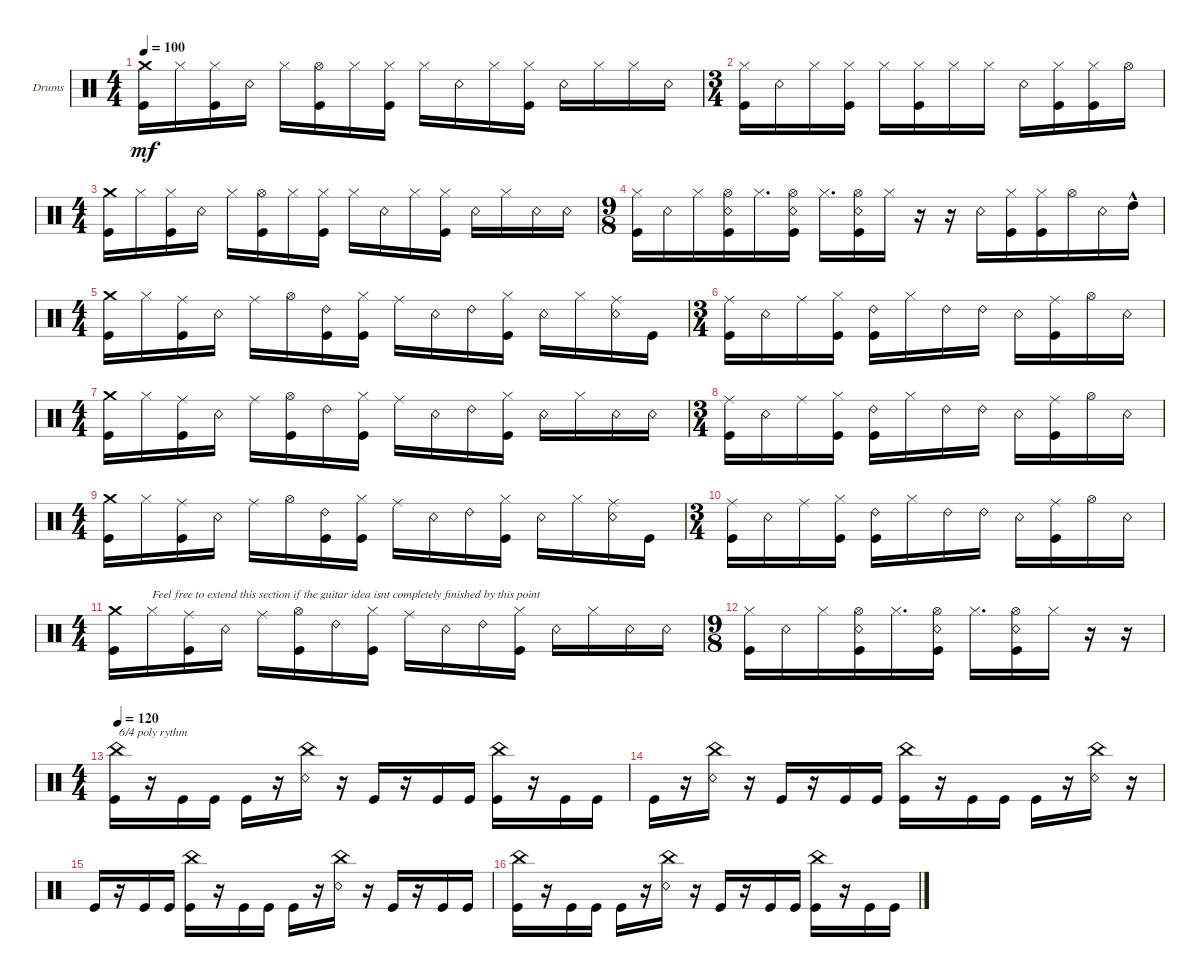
\defaultSystemsLayout 4
\bracketExtendMode groupsimilarinstruments
\firstSystemTrackNameOrientation horizontal
\otherSystemsTrackNameOrientation horizontal
\track ("Drumkit" "Drums") {instrument percussion}
\staff {score}
\articulation defaults
\ts (4 4)
\tempo 100
\clef neutral
\ks c
("Kick (hit)" "Crash medium (hit)").16{dy mf} "Hi-Hat (closed)".16 ("Kick (hit)" "Hi-Hat (closed)").16 "Snare (rim shot)".16 "Hi-Hat (closed)".16 ("Kick (hit)" "Hi-Hat (open)").16 "Hi-Hat (closed)".16 ("Hi-Hat (closed)" "Kick (hit)").16 "Hi-Hat (closed)".16 "Snare (rim shot)".16 "Hi-Hat (closed)".16 ("Hi-Hat (closed)" "Kick (hit)").16 "Snare (rim shot)".16 "Hi-Hat (closed)".16 "Hi-Hat (closed)".16 "Snare (rim shot)".16 |
\ts (3 4)
("Hi-Hat (closed)" "Kick (hit)").16 "Snare (rim shot)".16 "Hi-Hat (closed)".16 ("Hi-Hat (closed)" "Kick (hit)").16 "Hi-Hat (closed)".16 ("Hi-Hat (closed)" "Kick (hit)").16 "Hi-Hat (closed)".16 "Hi-Hat (closed)".16 "Snare (rim shot)".16 ("Hi-Hat (closed)" "Kick (hit)").16 ("Hi-Hat (closed)" "Kick (hit)").16 "Hi-Hat (open)".16 |
\ts (4 4)
("Kick (hit)" "Crash medium (hit)").16 "Hi-Hat (closed)".16 ("Kick (hit)" "Hi-Hat (closed)").16 "Snare (rim shot)".16 "Hi-Hat (closed)".16 ("Kick (hit)" "Hi-Hat (open)").16 "Hi-Hat (closed)".16 ("Hi-Hat (closed)" "Kick (hit)").16 "Hi-Hat (closed)".16 "Snare (rim shot)".16 "Hi-Hat (closed)".16 ("Hi-Hat (closed)" "Kick (hit)").16 "Snare (rim shot)".16 "Hi-Hat (closed)".16 "Snare (rim shot)".16 "Snare (rim shot)".16 |
\ts (9 8)
("Hi-Hat (closed)" "Kick (hit)").16 "Snare (rim shot)".16 "Hi-Hat (closed)".16 ("Hi-Hat (open)" "Kick (hit)" "Snare (rim shot)").16 "Hi-Hat (closed)".16{d} ("Kick (hit)" "Hi-Hat (open)" "Snare (rim shot)").16 "Hi-Hat (closed)".16{d} ("Snare (rim shot)" "Hi-Hat (open)" "Kick (hit)").16 "Hi-Hat (closed)".16 r.16 r.16 "Snare (rim shot)".16 ("Hi-Hat (closed)" "Kick (hit)").16 ("Hi-Hat (closed)" "Kick (hit)").16 "Hi-Hat (open)".16 "Snare (rim shot)".16 "High Tom (hit)"{hac}.16 |
\ts (4 4)
("Kick (hit)" "Crash medium (hit)").16 "Hi-Hat (closed)".16 ("Kick (hit)" "Ride (middle)").16 "Snare (rim shot)".16 "Ride (middle)".16 "Hi-Hat (open)".16 ("Ride (bell) 2" "Kick (hit)").16 ("Hi-Hat (closed)" "Kick (hit)").16 "Ride (middle)".16 "Snare (rim shot)".16 "Ride (bell) 2".16 ("Hi-Hat (closed)" "Kick (hit)").16 "Snare (rim shot)".16 "Hi-Hat (closed)".16 ("Ride (middle)" "Snare (rim shot)").16 "Kick (hit)".16 |
\ts (3 4)
("Kick (hit)" "Ride (middle)").16 "Snare (rim shot)".16 "Ride (middle)".16 ("Hi-Hat (closed)" "Kick (hit)").16 ("Ride (bell) 2" "Kick (hit)").16 "Hi-Hat (closed)".16 "Ride (bell) 2".16 "Ride (bell) 2".16 "Snare (rim shot)".16 ("Kick (hit)" "Ride (middle)").16 "Hi-Hat (open)".16 "Snare (rim shot)".16 |
\ts (4 4)
("Kick (hit)" "Crash medium (hit)").16 "Hi-Hat (closed)".16 ("Kick (hit)" "Ride (middle)").16 "Snare (rim shot)".16 "Ride (middle)".16 ("Kick (hit)" "Hi-Hat (open)").16 "Ride (bell) 2".16 ("Hi-Hat (closed)" "Kick (hit)").16 "Ride (middle)".16 "Snare (rim shot)".16 "Ride (bell) 2".16 ("Hi-Hat (closed)" "Kick (hit)").16 "Snare (rim shot)".16 "Hi-Hat (closed)".16 "Snare (rim shot)".16 "Snare (rim shot)".16 |
\ts (3 4)
("Kick (hit)" "Ride (middle)").16 "Snare (rim shot)".16 "Ride (middle)".16 ("Hi-Hat (closed)" "Kick (hit)").16 ("Ride (bell) 2" "Kick (hit)").16 "Hi-Hat (closed)".16 "Ride (bell) 2".16 "Ride (bell) 2".16 "Snare (rim shot)".16 ("Kick (hit)" "Ride (middle)").16 "Hi-Hat (open)".16 "Snare (rim shot)".16 |
\ts (4 4)
("Kick (hit)" "Crash medium (hit)").16 "Hi-Hat (closed)".16 ("Kick (hit)" "Ride (middle)").16 "Snare (rim shot)".16 "Ride (middle)".16 "Hi-Hat (open)".16 ("Ride (bell) 2" "Kick (hit)").16 ("Hi-Hat (closed)" "Kick (hit)").16 "Ride (middle)".16 "Snare (rim shot)".16 "Ride (bell) 2".16 ("Hi-Hat (closed)" "Kick (hit)").16 "Snare (rim shot)".16 "Hi-Hat (closed)".16 ("Ride (middle)" "Snare (rim shot)").16 "Kick (hit)".16 |
\ts (3 4)
("Kick (hit)" "Ride (middle)").16 "Snare (rim shot)".16 "Ride (middle)".16 ("Hi-Hat (closed)" "Kick (hit)").16 ("Ride (bell) 2" "Kick (hit)").16 "Hi-Hat (closed)".16 "Ride (bell) 2".16 "Ride (bell) 2".16 "Snare (rim shot)".16 ("Kick (hit)" "Ride (middle)").16 "Hi-Hat (open)".16 "Snare (rim shot)".16 |
\ts (4 4)
("Kick (hit)" "Crash medium (hit)").16 "Hi-Hat (closed)".16{txt "Feel free to extend this section if the guitar idea isnt completely finished by this point"} ("Kick (hit)" "Ride (middle)").16 "Snare (rim shot)".16 "Ride (middle)".16 ("Kick (hit)" "Hi-Hat (open)").16 "Ride (bell) 2".16 ("Hi-Hat (closed)" "Kick (hit)").16 "Ride (middle)".16 "Snare (rim shot)".16 "Ride (bell) 2".16 ("Hi-Hat (closed)" "Kick (hit)").16 "Snare (rim shot)".16 "Hi-Hat (closed)".16 "Snare (rim shot)".16 "Snare (rim shot)".16 |
\ts (9 8)
("Hi-Hat (closed)" "Kick (hit)").16 "Snare (rim shot)".16 "Hi-Hat (closed)".16 ("Hi-Hat (open)" "Kick (hit)" "Snare (rim shot)").16 "Hi-Hat (closed)".16{d} ("Kick (hit)" "Hi-Hat (open)" "Snare (rim shot)").16 "Hi-Hat (closed)".16{d} ("Snare (rim shot)" "Hi-Hat (open)" "Kick (hit)").16 "Hi-Hat (closed)".16 r.16 r.16 |
\ts (4 4)
\tempo 120
("Kick (hit)" "China (hit)").16{txt "6/4 poly rythm"} r.16 "Kick (hit)".16 "Kick (hit)".16 "Kick (hit)".16 r.16 ("Snare (rim shot)" "China (hit)").16 r.16 "Kick (hit)".16 r.16 "Kick (hit)".16 "Kick (hit)".16 ("Kick (hit)" "China (hit)").16 r.16 "Kick (hit)".16 "Kick (hit)".16 |
"Kick (hit)".16 r.16 ("Snare (rim shot)" "China (hit)").16 r.16 "Kick (hit)".16 r.16 "Kick (hit)".16 "Kick (hit)".16 ("Kick (hit)" "China (hit)").16 r.16 "Kick (hit)".16 "Kick (hit)".16 "Kick (hit)".16 r.16 ("Snare (rim shot)" "China (hit)").16 r.16 |
"Kick (hit)".16 r.16 "Kick (hit)".16 "Kick (hit)".16 ("Kick (hit)" "China (hit)").16 r.16 "Kick (hit)".16 "Kick (hit)".16 "Kick (hit)".16 r.16 ("Snare (rim shot)" "China (hit)").16 r.16 "Kick (hit)".16 r.16 "Kick (hit)".16 "Kick (hit)".16 |
("Kick (hit)" "China (hit)").16 r.16 "Kick (hit)".16 "Kick (hit)".16 "Kick (hit)".16 r.16 ("Snare (rim shot)" "China (hit)").16 r.16 "Kick (hit)".16 r.16 "Kick (hit)".16 "Kick (hit)".16 ("Kick (hit)" "China (hit)").16 r.16 "Kick (hit)".16 "Kick (hit)".16
